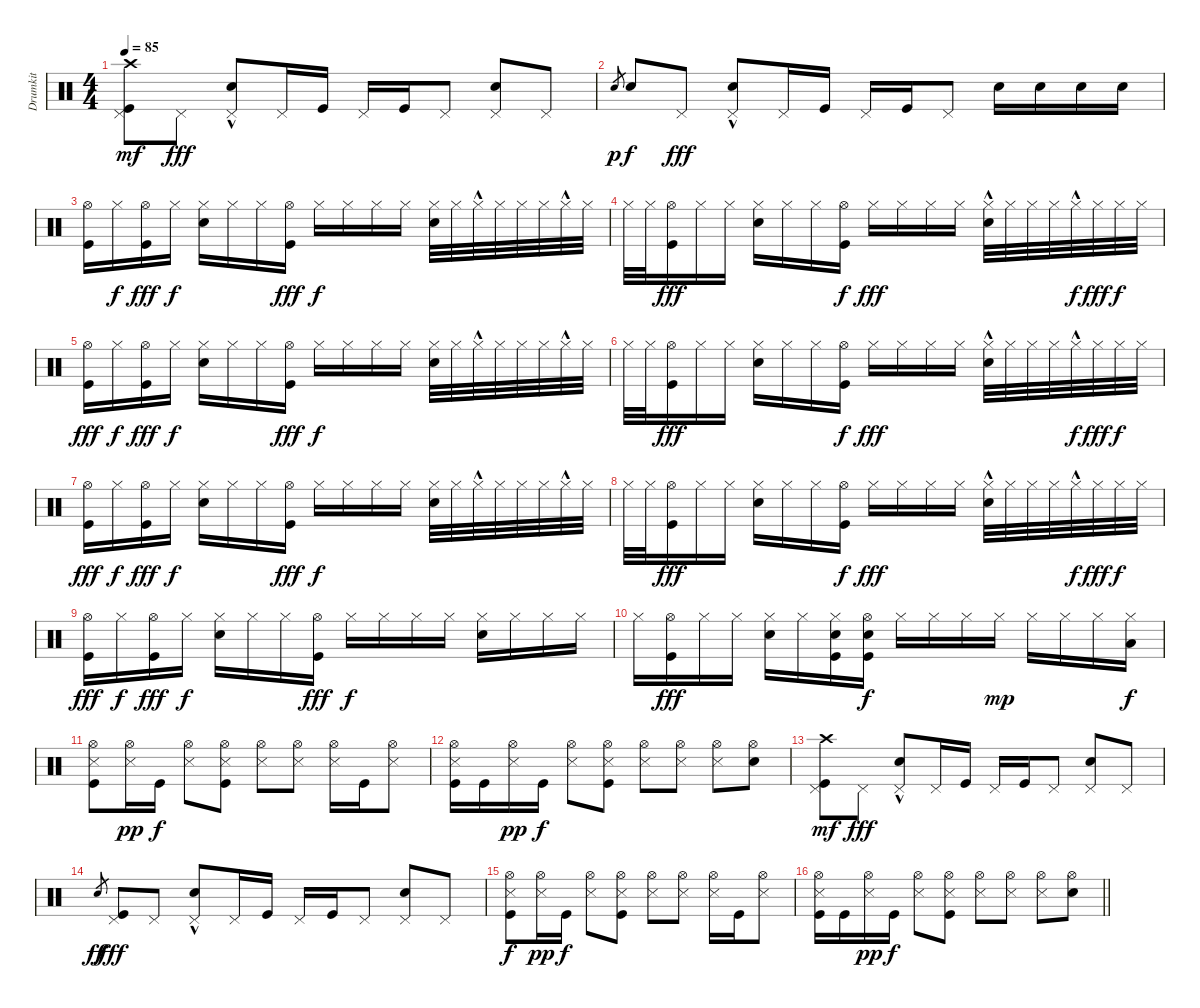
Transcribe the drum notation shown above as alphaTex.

\track ("Drumkit" "Drumkit") {instrument percussion}
\staff {score}
\articulation defaults
\ts (4 4)
\tempo 85
\clef neutral
\ks c
("Kick (hit)" "Pedal Hi-Hat (hit)" "Crash high (hit)").8{dy mf} "Pedal Hi-Hat (hit)".8{dy fff} ("Pedal Hi-Hat (hit)" "Snare (hit) 2"{hac}).8 "Pedal Hi-Hat (hit)".16 "Kick (hit)".16 "Pedal Hi-Hat (hit)".16 "Kick (hit)".16 "Pedal Hi-Hat (hit)".8 ("Snare (hit) 2" "Pedal Hi-Hat (hit)").8 "Pedal Hi-Hat (hit)".8 |
"Snare (hit)".8{gr dy p} "Snare (hit) 2".8{dy f} "Pedal Hi-Hat (hit)".8{dy fff} ("Pedal Hi-Hat (hit)" "Snare (hit) 2"{hac}).8 "Pedal Hi-Hat (hit)".16 "Kick (hit)".16 "Pedal Hi-Hat (hit)".16 "Kick (hit)".16 "Pedal Hi-Hat (hit)".8 "Snare (hit) 2".16 "Snare (hit) 2".16 "Snare (hit) 2".16 "Snare (hit) 2".16 |
("Kick (hit)" "Hi-Hat (open)").16 "Hi-Hat (closed)".16{dy f} ("Kick (hit)" "Hi-Hat (open)").16{dy fff} "Hi-Hat (closed)".16{dy f} ("Hi-Hat (closed)" "Snare (hit) 2").16 "Hi-Hat (closed)".16 "Hi-Hat (closed)".16 ("Kick (hit)" "Hi-Hat (open)").16{dy fff} "Hi-Hat (closed)".16{dy f} "Hi-Hat (closed)".16 "Hi-Hat (closed)".16 "Hi-Hat (closed)".16 ("Hi-Hat (closed)" "Snare (hit) 2").32 "Hi-Hat (closed)".32 "Hi-Hat (closed)"{hac}.32 "Hi-Hat (closed)".32 "Hi-Hat (closed)".32 "Hi-Hat (closed)".32 "Hi-Hat (closed)"{hac}.32 "Hi-Hat (closed)".32 |
"Hi-Hat (closed)".32 "Hi-Hat (closed)".32 ("Kick (hit)" "Hi-Hat (open)").16{dy fff} "Hi-Hat (closed)".16 "Hi-Hat (closed)".16 ("Hi-Hat (closed)" "Snare (hit) 2").16 "Hi-Hat (closed)".16 "Hi-Hat (closed)".16 ("Hi-Hat (open)" "Kick (hit)").16{dy f} "Hi-Hat (closed)".16{dy fff} "Hi-Hat (closed)".16 "Hi-Hat (closed)".16 "Hi-Hat (closed)".16 ("Hi-Hat (closed)"{hac} "Snare (hit) 2").32 "Hi-Hat (closed)".32 "Hi-Hat (closed)".32 "Hi-Hat (closed)".32 "Hi-Hat (closed)"{hac}.32{dy f} "Hi-Hat (closed)".32{dy fff} "Hi-Hat (closed)".32{dy f} "Hi-Hat (closed)".32 |
("Kick (hit)" "Hi-Hat (open)").16{dy fff} "Hi-Hat (closed)".16{dy f} ("Kick (hit)" "Hi-Hat (open)").16{dy fff} "Hi-Hat (closed)".16{dy f} ("Hi-Hat (closed)" "Snare (hit) 2").16 "Hi-Hat (closed)".16 "Hi-Hat (closed)".16 ("Kick (hit)" "Hi-Hat (open)").16{dy fff} "Hi-Hat (closed)".16{dy f} "Hi-Hat (closed)".16 "Hi-Hat (closed)".16 "Hi-Hat (closed)".16 ("Hi-Hat (closed)" "Snare (hit) 2").32 "Hi-Hat (closed)".32 "Hi-Hat (closed)"{hac}.32 "Hi-Hat (closed)".32 "Hi-Hat (closed)".32 "Hi-Hat (closed)".32 "Hi-Hat (closed)"{hac}.32 "Hi-Hat (closed)".32 |
"Hi-Hat (closed)".32 "Hi-Hat (closed)".32 ("Kick (hit)" "Hi-Hat (open)").16{dy fff} "Hi-Hat (closed)".16 "Hi-Hat (closed)".16 ("Hi-Hat (closed)" "Snare (hit) 2").16 "Hi-Hat (closed)".16 "Hi-Hat (closed)".16 ("Hi-Hat (open)" "Kick (hit)").16{dy f} "Hi-Hat (closed)".16{dy fff} "Hi-Hat (closed)".16 "Hi-Hat (closed)".16 "Hi-Hat (closed)".16 ("Hi-Hat (closed)"{hac} "Snare (hit) 2").32 "Hi-Hat (closed)".32 "Hi-Hat (closed)".32 "Hi-Hat (closed)".32 "Hi-Hat (closed)"{hac}.32{dy f} "Hi-Hat (closed)".32{dy fff} "Hi-Hat (closed)".32{dy f} "Hi-Hat (closed)".32 |
("Kick (hit)" "Hi-Hat (open)").16{dy fff} "Hi-Hat (closed)".16{dy f} ("Kick (hit)" "Hi-Hat (open)").16{dy fff} "Hi-Hat (closed)".16{dy f} ("Hi-Hat (closed)" "Snare (hit) 2").16 "Hi-Hat (closed)".16 "Hi-Hat (closed)".16 ("Kick (hit)" "Hi-Hat (open)").16{dy fff} "Hi-Hat (closed)".16{dy f} "Hi-Hat (closed)".16 "Hi-Hat (closed)".16 "Hi-Hat (closed)".16 ("Hi-Hat (closed)" "Snare (hit) 2").32 "Hi-Hat (closed)".32 "Hi-Hat (closed)"{hac}.32 "Hi-Hat (closed)".32 "Hi-Hat (closed)".32 "Hi-Hat (closed)".32 "Hi-Hat (closed)"{hac}.32 "Hi-Hat (closed)".32 |
"Hi-Hat (closed)".32 "Hi-Hat (closed)".32 ("Kick (hit)" "Hi-Hat (open)").16{dy fff} "Hi-Hat (closed)".16 "Hi-Hat (closed)".16 ("Hi-Hat (closed)" "Snare (hit) 2").16 "Hi-Hat (closed)".16 "Hi-Hat (closed)".16 ("Hi-Hat (open)" "Kick (hit)").16{dy f} "Hi-Hat (closed)".16{dy fff} "Hi-Hat (closed)".16 "Hi-Hat (closed)".16 "Hi-Hat (closed)".16 ("Hi-Hat (closed)"{hac} "Snare (hit) 2").32 "Hi-Hat (closed)".32 "Hi-Hat (closed)".32 "Hi-Hat (closed)".32 "Hi-Hat (closed)"{hac}.32{dy f} "Hi-Hat (closed)".32{dy fff} "Hi-Hat (closed)".32{dy f} "Hi-Hat (closed)".32 |
("Kick (hit)" "Hi-Hat (open)").16{dy fff} "Hi-Hat (closed)".16{dy f} ("Kick (hit)" "Hi-Hat (open)").16{dy fff} "Hi-Hat (closed)".16{dy f} ("Hi-Hat (closed)" "Snare (hit) 2").16 "Hi-Hat (closed)".16 "Hi-Hat (closed)".16 ("Kick (hit)" "Hi-Hat (open)").16{dy fff} "Hi-Hat (closed)".16{dy f} "Hi-Hat (closed)".16 "Hi-Hat (closed)".16 "Hi-Hat (closed)".16 ("Hi-Hat (closed)" "Snare (hit) 2").16 "Hi-Hat (closed)".16 "Hi-Hat (closed)".16 "Hi-Hat (closed)".16 |
"Hi-Hat (closed)".16 ("Kick (hit)" "Hi-Hat (open)").16{dy fff} "Hi-Hat (closed)".16 "Hi-Hat (closed)".16 ("Hi-Hat (closed)" "Snare (hit) 2").16 "Hi-Hat (closed)".16 ("Hi-Hat (closed)" "Snare (hit) 2" "Kick (hit)").16 ("Hi-Hat (open)" "Kick (hit)" "Snare (hit) 2").16{dy f} "Hi-Hat (closed)".16 "Hi-Hat (closed)".16 "Hi-Hat (closed)".16 "Hi-Hat (closed)".16{dy mp} "Hi-Hat (closed)".16 "Hi-Hat (closed)".16 "Hi-Hat (closed)".16 ("Hi-Hat (closed)" "Low Floor Tom (hit)").16{dy f} |
("Snare (side stick) 3" "Kick (hit)" "Hi-Hat (open)").8 ("Snare (side stick) 3" "Hi-Hat (open)").16{dy pp} "Kick (hit)".16{dy f} ("Snare (side stick) 3" "Hi-Hat (open)").8 ("Snare (side stick) 3" "Hi-Hat (open)" "Kick (hit)").8 ("Snare (side stick) 3" "Hi-Hat (open)").8 ("Snare (side stick) 3" "Hi-Hat (open)").8 ("Snare (side stick) 3" "Hi-Hat (open)").16 "Kick (hit)".16 ("Snare (side stick) 3" "Hi-Hat (open)").8 |
("Snare (side stick) 3" "Kick (hit)" "Hi-Hat (open)").16 "Kick (hit)".16 ("Snare (side stick) 3" "Hi-Hat (open)").16{dy pp} "Kick (hit)".16{dy f} ("Snare (side stick) 3" "Hi-Hat (open)").8 ("Snare (side stick) 3" "Hi-Hat (open)" "Kick (hit)").8 ("Snare (side stick) 3" "Hi-Hat (open)").8 ("Snare (side stick) 3" "Hi-Hat (open)").8 ("Snare (side stick) 3" "Hi-Hat (open)").8 ("Snare (hit) 2" "Hi-Hat (open)").8 |
("Kick (hit)" "Pedal Hi-Hat (hit)" "Crash high (hit)").8{dy mf} "Pedal Hi-Hat (hit)".8{dy fff} ("Pedal Hi-Hat (hit)" "Snare (hit) 2"{hac}).8 "Pedal Hi-Hat (hit)".16 "Kick (hit)".16 "Pedal Hi-Hat (hit)".16 "Kick (hit)".16 "Pedal Hi-Hat (hit)".8 ("Snare (hit) 2" "Pedal Hi-Hat (hit)").8 "Pedal Hi-Hat (hit)".8 |
"Snare (hit)".8{gr dy ff} ("Kick (hit)" "Pedal Hi-Hat (hit)").8{dy fff} "Pedal Hi-Hat (hit)".8 ("Pedal Hi-Hat (hit)" "Snare (hit) 2"{hac}).8 "Pedal Hi-Hat (hit)".16 "Kick (hit)".16 "Pedal Hi-Hat (hit)".16 "Kick (hit)".16 "Pedal Hi-Hat (hit)".8 ("Snare (hit) 2" "Pedal Hi-Hat (hit)").8 "Pedal Hi-Hat (hit)".8 |
("Snare (side stick) 3" "Kick (hit)" "Hi-Hat (open)").8{dy f} ("Snare (side stick) 3" "Hi-Hat (open)").16{dy pp} "Kick (hit)".16{dy f} ("Snare (side stick) 3" "Hi-Hat (open)").8 ("Snare (side stick) 3" "Hi-Hat (open)" "Kick (hit)").8 ("Snare (side stick) 3" "Hi-Hat (open)").8 ("Snare (side stick) 3" "Hi-Hat (open)").8 ("Snare (side stick) 3" "Hi-Hat (open)").16 "Kick (hit)".16 ("Snare (side stick) 3" "Hi-Hat (open)").8 |
\barLineRight lightlight
("Snare (side stick) 3" "Kick (hit)" "Hi-Hat (open)").16 "Kick (hit)".16 ("Snare (side stick) 3" "Hi-Hat (open)").16{dy pp} "Kick (hit)".16{dy f} ("Snare (side stick) 3" "Hi-Hat (open)").8 ("Snare (side stick) 3" "Hi-Hat (open)" "Kick (hit)").8 ("Snare (side stick) 3" "Hi-Hat (open)").8 ("Snare (side stick) 3" "Hi-Hat (open)").8 ("Snare (side stick) 3" "Hi-Hat (open)").8 ("Snare (hit) 2" "Hi-Hat (open)").8
